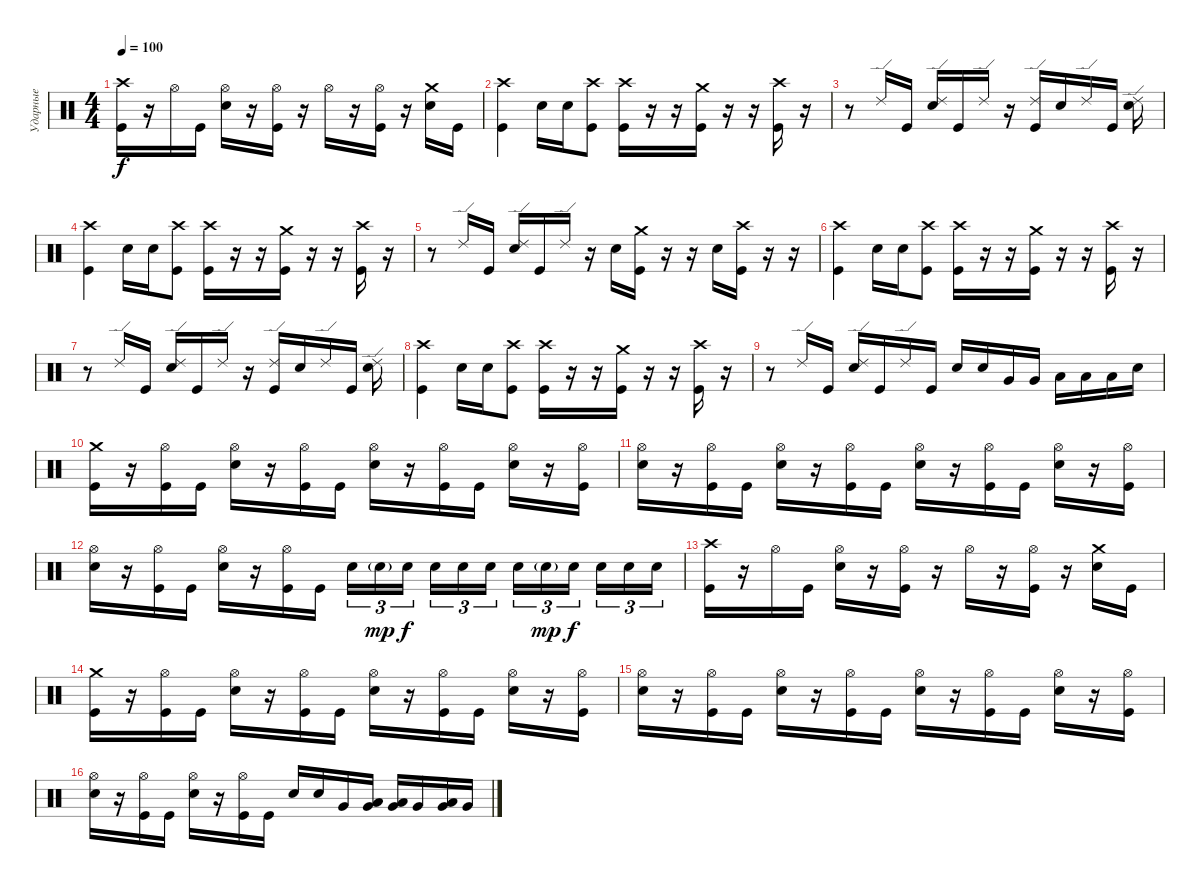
\track ("Ударные" "Ударные") {instrument percussion}
\staff {score}
\articulation defaults
\ts (4 4)
\tempo 100
\clef neutral
\ks c
("Crash high (hit)" "Kick (hit)").16{dy f} r.16 "Hi-Hat (open)".16 "Kick (hit)".16 ("Hi-Hat (open)" "Electric Snare (hit)").16 r.16 ("Hi-Hat (open)" "Kick (hit)").16 r.16 "Hi-Hat (open)".16 r.16 ("Hi-Hat (open)" "Kick (hit)").16 r.16 ("Crash medium (hit)" "Electric Snare (hit)").16 "Kick (hit)".16 |
("Crash high (hit)" "Kick (hit)").4 "Electric Snare (hit)".16 "Electric Snare (hit)".16 ("Crash high (hit)" "Kick (hit)").8 ("Crash high (hit)" "Kick (hit)").16 r.16 r.16 ("Crash medium (hit)" "Kick (hit)").16 r.16 r.16 ("Crash high (hit)" "Kick (hit)").16 r.16 |
r.8 "Ride (edge) 2".16 "Kick (hit)".16 ("Ride (edge) 2" "Electric Snare (hit)").16 "Kick (hit)".16 "Ride (edge) 2".16 r.16 ("Ride (edge) 2" "Kick (hit)").16 "Electric Snare (hit)".16 "Ride (edge) 2".16 "Kick (hit)".16 ("Ride (edge) 2" "Electric Snare (hit)").16 |
("Crash high (hit)" "Kick (hit)").4 "Electric Snare (hit)".16 "Electric Snare (hit)".16 ("Crash high (hit)" "Kick (hit)").8 ("Crash high (hit)" "Kick (hit)").16 r.16 r.16 ("Crash medium (hit)" "Kick (hit)").16 r.16 r.16 ("Crash high (hit)" "Kick (hit)").16 r.16 |
r.8 "Ride (edge) 2".16 "Kick (hit)".16 ("Ride (edge) 2" "Electric Snare (hit)").16 "Kick (hit)".16 "Ride (edge) 2".16 r.16 "Electric Snare (hit)".16 ("Crash medium (hit)" "Kick (hit)").16 r.16 r.16 "Electric Snare (hit)".16 ("Crash high (hit)" "Kick (hit)").16 r.16 r.16 |
("Crash high (hit)" "Kick (hit)").4 "Electric Snare (hit)".16 "Electric Snare (hit)".16 ("Crash high (hit)" "Kick (hit)").8 ("Crash high (hit)" "Kick (hit)").16 r.16 r.16 ("Crash medium (hit)" "Kick (hit)").16 r.16 r.16 ("Crash high (hit)" "Kick (hit)").16 r.16 |
r.8 "Ride (edge) 2".16 "Kick (hit)".16 ("Ride (edge) 2" "Electric Snare (hit)").16 "Kick (hit)".16 "Ride (edge) 2".16 r.16 ("Ride (edge) 2" "Kick (hit)").16 "Electric Snare (hit)".16 "Ride (edge) 2".16 "Kick (hit)".16 ("Ride (edge) 2" "Electric Snare (hit)").16 |
("Crash high (hit)" "Kick (hit)").4 "Electric Snare (hit)".16 "Electric Snare (hit)".16 ("Crash high (hit)" "Kick (hit)").8 ("Crash high (hit)" "Kick (hit)").16 r.16 r.16 ("Crash medium (hit)" "Kick (hit)").16 r.16 r.16 ("Crash high (hit)" "Kick (hit)").16 r.16 |
r.8 "Ride (edge) 2".16 "Kick (hit)".16 ("Ride (edge) 2" "Electric Snare (hit)").16 "Kick (hit)".16 "Ride (edge) 2".16 "Kick (hit)".16 "Electric Snare (hit)".16 "Electric Snare (hit)".16 "Very Low Tom (hit)".16 "Very Low Tom (hit)".16 "Low Floor Tom (hit)".16 "Low Floor Tom (hit)".16 "Low Floor Tom (hit)".16 "Electric Snare (hit)".16 |
("Crash medium (hit)" "Kick (hit)").16 r.16 ("Hi-Hat (open)" "Kick (hit)").16 "Kick (hit)".16 ("Hi-Hat (open)" "Electric Snare (hit)").16 r.16 ("Hi-Hat (open)" "Kick (hit)").16 "Kick (hit)".16 ("Hi-Hat (open)" "Electric Snare (hit)").16 r.16 ("Hi-Hat (open)" "Kick (hit)").16 "Kick (hit)".16 ("Hi-Hat (open)" "Electric Snare (hit)").16 r.16 ("Hi-Hat (open)" "Kick (hit)").16 |
("Hi-Hat (open)" "Electric Snare (hit)").16 r.16 ("Hi-Hat (open)" "Kick (hit)").16 "Kick (hit)".16 ("Hi-Hat (open)" "Electric Snare (hit)").16 r.16 ("Hi-Hat (open)" "Kick (hit)").16 "Kick (hit)".16 ("Hi-Hat (open)" "Electric Snare (hit)").16 r.16 ("Hi-Hat (open)" "Kick (hit)").16 "Kick (hit)".16 ("Hi-Hat (open)" "Electric Snare (hit)").16 r.16 ("Hi-Hat (open)" "Kick (hit)").16 |
("Hi-Hat (open)" "Electric Snare (hit)").16 r.16 ("Hi-Hat (open)" "Kick (hit)").16 "Kick (hit)".16 ("Hi-Hat (open)" "Electric Snare (hit)").16 r.16 ("Hi-Hat (open)" "Kick (hit)").16 "Kick (hit)".16 "Electric Snare (hit)".16{tu (3 2)} "Electric Snare (hit)"{g}.16{tu (3 2) dy mp} "Electric Snare (hit)".16{tu (3 2) dy f beam splitsecondary} "Electric Snare (hit)".16{tu (3 2)} "Electric Snare (hit)".16{tu (3 2)} "Electric Snare (hit)".16{tu (3 2)} "Electric Snare (hit)".16{tu (3 2)} "Electric Snare (hit)"{g}.16{tu (3 2) dy mp} "Electric Snare (hit)".16{tu (3 2) dy f beam splitsecondary} "Electric Snare (hit)".16{tu (3 2)} "Electric Snare (hit)".16{tu (3 2)} "Electric Snare (hit)".16{tu (3 2)} |
("Crash high (hit)" "Kick (hit)").16 r.16 "Hi-Hat (open)".16 "Kick (hit)".16 ("Hi-Hat (open)" "Electric Snare (hit)").16 r.16 ("Hi-Hat (open)" "Kick (hit)").16 r.16 "Hi-Hat (open)".16 r.16 ("Hi-Hat (open)" "Kick (hit)").16 r.16 ("Crash medium (hit)" "Electric Snare (hit)").16 "Kick (hit)".16 |
("Crash medium (hit)" "Kick (hit)").16 r.16 ("Hi-Hat (open)" "Kick (hit)").16 "Kick (hit)".16 ("Hi-Hat (open)" "Electric Snare (hit)").16 r.16 ("Hi-Hat (open)" "Kick (hit)").16 "Kick (hit)".16 ("Hi-Hat (open)" "Electric Snare (hit)").16 r.16 ("Hi-Hat (open)" "Kick (hit)").16 "Kick (hit)".16 ("Hi-Hat (open)" "Electric Snare (hit)").16 r.16 ("Hi-Hat (open)" "Kick (hit)").16 |
("Hi-Hat (open)" "Electric Snare (hit)").16 r.16 ("Hi-Hat (open)" "Kick (hit)").16 "Kick (hit)".16 ("Hi-Hat (open)" "Electric Snare (hit)").16 r.16 ("Hi-Hat (open)" "Kick (hit)").16 "Kick (hit)".16 ("Hi-Hat (open)" "Electric Snare (hit)").16 r.16 ("Hi-Hat (open)" "Kick (hit)").16 "Kick (hit)".16 ("Hi-Hat (open)" "Electric Snare (hit)").16 r.16 ("Hi-Hat (open)" "Kick (hit)").16 |
("Hi-Hat (open)" "Electric Snare (hit)").16 r.16 ("Hi-Hat (open)" "Kick (hit)").16 "Kick (hit)".16 ("Hi-Hat (open)" "Electric Snare (hit)").16 r.16 ("Hi-Hat (open)" "Kick (hit)").16 "Kick (hit)".16 "Electric Snare (hit)".16 "Electric Snare (hit)".16 "Very Low Tom (hit)".16 ("Very Low Tom (hit)" "Low Floor Tom (hit)").16 ("Very Low Tom (hit)" "Low Floor Tom (hit)").16 "Very Low Tom (hit)".16 ("Very Low Tom (hit)" "Low Floor Tom (hit)").16 "Very Low Tom (hit)".16
